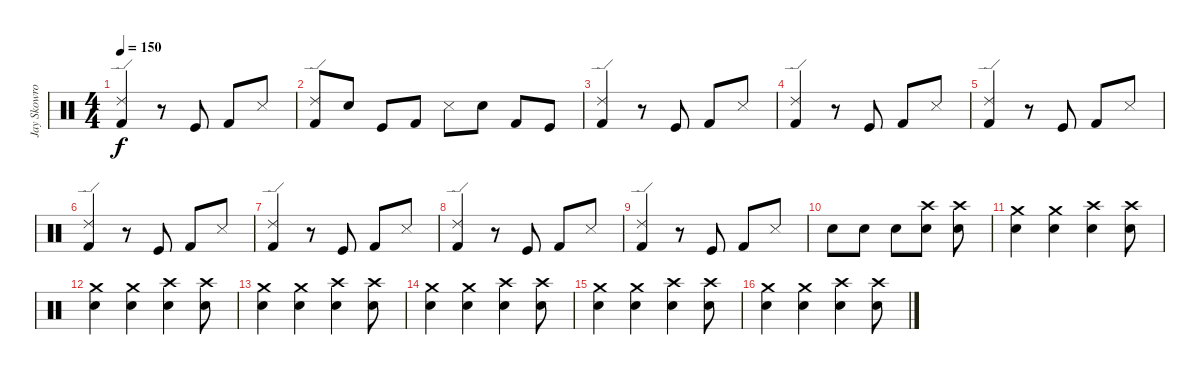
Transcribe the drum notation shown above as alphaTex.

\track ("Jay Skowronek (Drums)" "Jay Skowro") {instrument percussion}
\staff {score}
\articulation defaults
\ts (4 4)
\tempo 150
\clef neutral
\ks c
("Kick (hit) 2" "Ride (edge) 2").4{dy f} r.8 "Kick (hit)".8 "Kick (hit) 2".8 "Snare (side stick) 3".8 |
("Kick (hit) 2" "Ride (edge) 2").8 "Snare (hit) 2".8 "Kick (hit)".8 "Kick (hit) 2".8 "Snare (side stick) 3".8 "Hand Clap (hit)".8 "Kick (hit) 2".8 "Kick (hit)".8 |
("Kick (hit) 2" "Ride (edge) 2").4 r.8 "Kick (hit)".8 "Kick (hit) 2".8 "Snare (side stick) 3".8 |
("Kick (hit) 2" "Ride (edge) 2").4 r.8 "Kick (hit)".8 "Kick (hit) 2".8 "Snare (side stick) 3".8 |
("Kick (hit) 2" "Ride (edge) 2").4 r.8 "Kick (hit)".8 "Kick (hit) 2".8 "Snare (side stick) 3".8 |
("Kick (hit) 2" "Ride (edge) 2").4 r.8 "Kick (hit)".8 "Kick (hit) 2".8 "Snare (side stick) 3".8 |
("Kick (hit) 2" "Ride (edge) 2").4 r.8 "Kick (hit)".8 "Kick (hit) 2".8 "Snare (side stick) 3".8 |
("Kick (hit) 2" "Ride (edge) 2").4 r.8 "Kick (hit)".8 "Kick (hit) 2".8 "Snare (side stick) 3".8 |
("Kick (hit) 2" "Ride (edge) 2").4 r.8 "Kick (hit)".8 "Kick (hit) 2".8 "Snare (side stick) 3".8 |
"Snare (hit) 2".8 "Electric Snare (hit)".8 "Electric Snare (hit)".8 ("Electric Snare (hit)" "Crash high (hit)").8 ("Electric Snare (hit)" "Crash high (hit)").8 |
("Electric Snare (hit)" "Crash medium (hit)").4 ("Electric Snare (hit)" "Crash medium (hit)").4 ("Electric Snare (hit)" "Crash high (hit)").4 ("Electric Snare (hit)" "Crash high (hit)").8 |
("Electric Snare (hit)" "Crash medium (hit)").4 ("Electric Snare (hit)" "Crash medium (hit)").4 ("Electric Snare (hit)" "Crash high (hit)").4 ("Electric Snare (hit)" "Crash high (hit)").8 |
("Electric Snare (hit)" "Crash medium (hit)").4 ("Electric Snare (hit)" "Crash medium (hit)").4 ("Electric Snare (hit)" "Crash high (hit)").4 ("Electric Snare (hit)" "Crash high (hit)").8 |
("Electric Snare (hit)" "Crash medium (hit)").4 ("Electric Snare (hit)" "Crash medium (hit)").4 ("Electric Snare (hit)" "Crash high (hit)").4 ("Electric Snare (hit)" "Crash high (hit)").8 |
("Electric Snare (hit)" "Crash medium (hit)").4 ("Electric Snare (hit)" "Crash medium (hit)").4 ("Electric Snare (hit)" "Crash high (hit)").4 ("Electric Snare (hit)" "Crash high (hit)").8 |
("Electric Snare (hit)" "Crash medium (hit)").4 ("Electric Snare (hit)" "Crash medium (hit)").4 ("Electric Snare (hit)" "Crash high (hit)").4 ("Electric Snare (hit)" "Crash high (hit)").8
